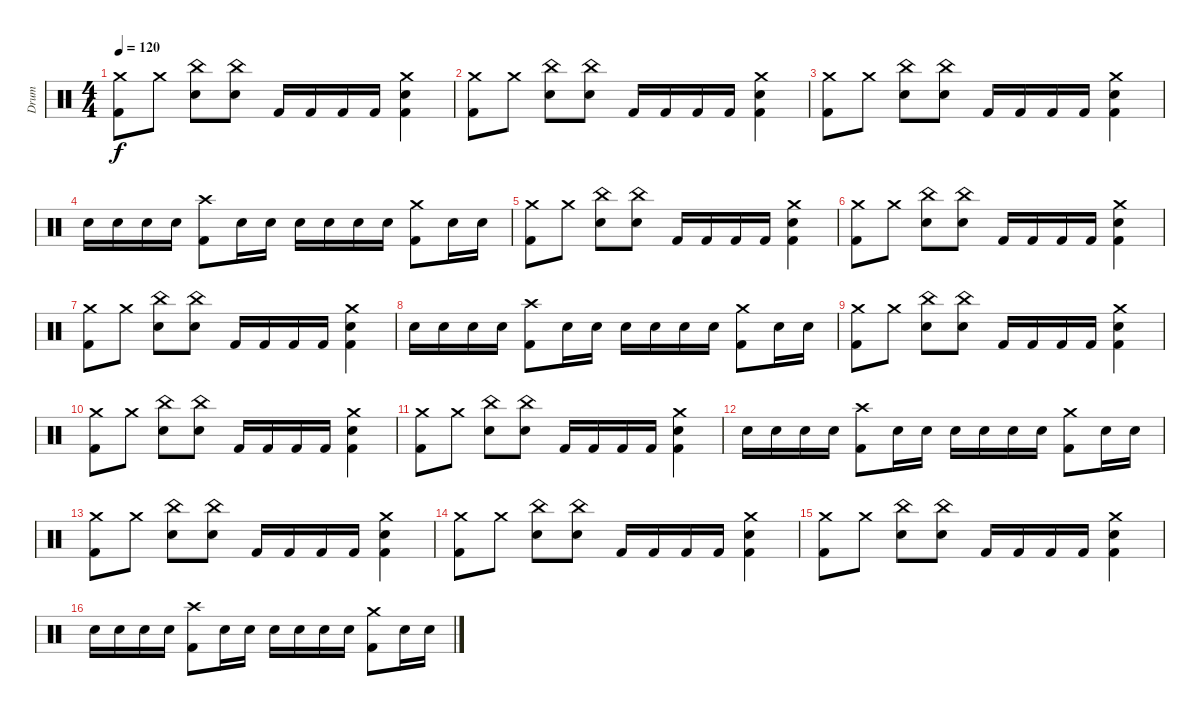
\track ("Drum" "Drum") {instrument percussion}
\staff {score}
\articulation defaults
\ts (4 4)
\tempo 120
\clef neutral
\ks c
("Crash medium (hit)" "Kick (hit) 2").8{dy f} "Crash medium (hit)".8 ("China (hit)" "Snare (hit) 2").8 ("China (hit)" "Snare (hit) 2").8 "Kick (hit) 2".16 "Kick (hit) 2".16 "Kick (hit) 2".16 "Kick (hit) 2".16 ("Crash medium (hit)" "Snare (hit) 2" "Kick (hit) 2").4 |
("Crash medium (hit)" "Kick (hit) 2").8 "Crash medium (hit)".8 ("China (hit)" "Snare (hit) 2").8 ("China (hit)" "Snare (hit) 2").8 "Kick (hit) 2".16 "Kick (hit) 2".16 "Kick (hit) 2".16 "Kick (hit) 2".16 ("Crash medium (hit)" "Snare (hit) 2" "Kick (hit) 2").4 |
("Crash medium (hit)" "Kick (hit) 2").8 "Crash medium (hit)".8 ("China (hit)" "Snare (hit) 2").8 ("China (hit)" "Snare (hit) 2").8 "Kick (hit) 2".16 "Kick (hit) 2".16 "Kick (hit) 2".16 "Kick (hit) 2".16 ("Crash medium (hit)" "Snare (hit) 2" "Kick (hit) 2").4 |
"Snare (hit) 2".16 "Snare (hit) 2".16 "Snare (hit) 2".16 "Snare (hit) 2".16 ("Crash high (hit)" "Kick (hit) 2").8 "Snare (hit) 2".16 "Snare (hit) 2".16 "Snare (hit) 2".16 "Snare (hit) 2".16 "Snare (hit) 2".16 "Snare (hit) 2".16 ("Crash medium (hit)" "Kick (hit) 2").8 "Snare (hit) 2".16 "Snare (hit) 2".16 |
("Crash medium (hit)" "Kick (hit) 2").8 "Crash medium (hit)".8 ("China (hit)" "Snare (hit) 2").8 ("China (hit)" "Snare (hit) 2").8 "Kick (hit) 2".16 "Kick (hit) 2".16 "Kick (hit) 2".16 "Kick (hit) 2".16 ("Crash medium (hit)" "Snare (hit) 2" "Kick (hit) 2").4 |
("Crash medium (hit)" "Kick (hit) 2").8 "Crash medium (hit)".8 ("China (hit)" "Snare (hit) 2").8 ("China (hit)" "Snare (hit) 2").8 "Kick (hit) 2".16 "Kick (hit) 2".16 "Kick (hit) 2".16 "Kick (hit) 2".16 ("Crash medium (hit)" "Snare (hit) 2" "Kick (hit) 2").4 |
("Crash medium (hit)" "Kick (hit) 2").8 "Crash medium (hit)".8 ("China (hit)" "Snare (hit) 2").8 ("China (hit)" "Snare (hit) 2").8 "Kick (hit) 2".16 "Kick (hit) 2".16 "Kick (hit) 2".16 "Kick (hit) 2".16 ("Crash medium (hit)" "Snare (hit) 2" "Kick (hit) 2").4 |
"Snare (hit) 2".16 "Snare (hit) 2".16 "Snare (hit) 2".16 "Snare (hit) 2".16 ("Crash high (hit)" "Kick (hit) 2").8 "Snare (hit) 2".16 "Snare (hit) 2".16 "Snare (hit) 2".16 "Snare (hit) 2".16 "Snare (hit) 2".16 "Snare (hit) 2".16 ("Crash medium (hit)" "Kick (hit) 2").8 "Snare (hit) 2".16 "Snare (hit) 2".16 |
("Crash medium (hit)" "Kick (hit) 2").8 "Crash medium (hit)".8 ("China (hit)" "Snare (hit) 2").8 ("China (hit)" "Snare (hit) 2").8 "Kick (hit) 2".16 "Kick (hit) 2".16 "Kick (hit) 2".16 "Kick (hit) 2".16 ("Crash medium (hit)" "Snare (hit) 2" "Kick (hit) 2").4 |
("Crash medium (hit)" "Kick (hit) 2").8 "Crash medium (hit)".8 ("China (hit)" "Snare (hit) 2").8 ("China (hit)" "Snare (hit) 2").8 "Kick (hit) 2".16 "Kick (hit) 2".16 "Kick (hit) 2".16 "Kick (hit) 2".16 ("Crash medium (hit)" "Snare (hit) 2" "Kick (hit) 2").4 |
("Crash medium (hit)" "Kick (hit) 2").8 "Crash medium (hit)".8 ("China (hit)" "Snare (hit) 2").8 ("China (hit)" "Snare (hit) 2").8 "Kick (hit) 2".16 "Kick (hit) 2".16 "Kick (hit) 2".16 "Kick (hit) 2".16 ("Crash medium (hit)" "Snare (hit) 2" "Kick (hit) 2").4 |
"Snare (hit) 2".16 "Snare (hit) 2".16 "Snare (hit) 2".16 "Snare (hit) 2".16 ("Crash high (hit)" "Kick (hit) 2").8 "Snare (hit) 2".16 "Snare (hit) 2".16 "Snare (hit) 2".16 "Snare (hit) 2".16 "Snare (hit) 2".16 "Snare (hit) 2".16 ("Crash medium (hit)" "Kick (hit) 2").8 "Snare (hit) 2".16 "Snare (hit) 2".16 |
("Crash medium (hit)" "Kick (hit) 2").8 "Crash medium (hit)".8 ("China (hit)" "Snare (hit) 2").8 ("China (hit)" "Snare (hit) 2").8 "Kick (hit) 2".16 "Kick (hit) 2".16 "Kick (hit) 2".16 "Kick (hit) 2".16 ("Crash medium (hit)" "Snare (hit) 2" "Kick (hit) 2").4 |
("Crash medium (hit)" "Kick (hit) 2").8 "Crash medium (hit)".8 ("China (hit)" "Snare (hit) 2").8 ("China (hit)" "Snare (hit) 2").8 "Kick (hit) 2".16 "Kick (hit) 2".16 "Kick (hit) 2".16 "Kick (hit) 2".16 ("Crash medium (hit)" "Snare (hit) 2" "Kick (hit) 2").4 |
("Crash medium (hit)" "Kick (hit) 2").8 "Crash medium (hit)".8 ("China (hit)" "Snare (hit) 2").8 ("China (hit)" "Snare (hit) 2").8 "Kick (hit) 2".16 "Kick (hit) 2".16 "Kick (hit) 2".16 "Kick (hit) 2".16 ("Crash medium (hit)" "Snare (hit) 2" "Kick (hit) 2").4 |
"Snare (hit) 2".16 "Snare (hit) 2".16 "Snare (hit) 2".16 "Snare (hit) 2".16 ("Crash high (hit)" "Kick (hit) 2").8 "Snare (hit) 2".16 "Snare (hit) 2".16 "Snare (hit) 2".16 "Snare (hit) 2".16 "Snare (hit) 2".16 "Snare (hit) 2".16 ("Crash medium (hit)" "Kick (hit) 2").8 "Snare (hit) 2".16 "Snare (hit) 2".16
